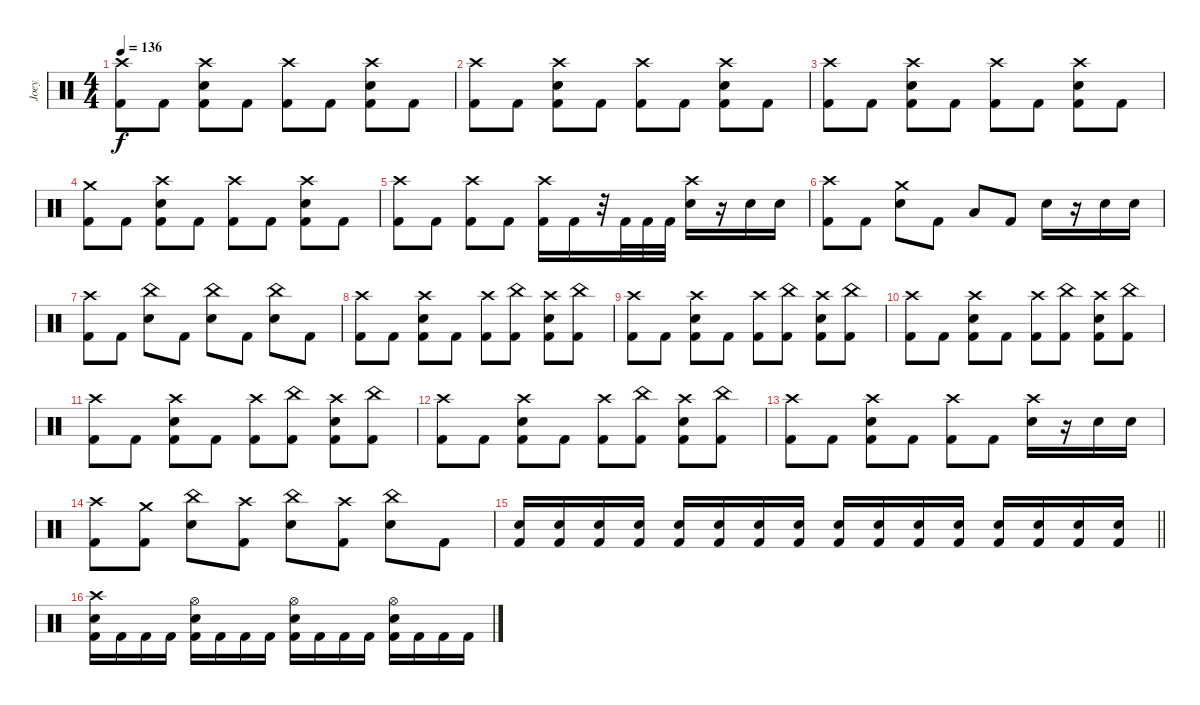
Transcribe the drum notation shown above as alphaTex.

\track ("Joey" "Joey") {instrument percussion}
\staff {score}
\articulation defaults
\ts (4 4)
\tempo 136
\clef neutral
\ks c
("Crash high (hit)" "Kick (hit) 2").8{dy f} "Kick (hit) 2".8 ("Crash high (hit)" "Snare (hit) 2" "Kick (hit) 2").8 "Kick (hit) 2".8 ("Crash high (hit)" "Kick (hit) 2").8 "Kick (hit) 2".8 ("Crash high (hit)" "Snare (hit) 2" "Kick (hit) 2").8 "Kick (hit) 2".8 |
("Crash high (hit)" "Kick (hit) 2").8 "Kick (hit) 2".8 ("Crash high (hit)" "Snare (hit) 2" "Kick (hit) 2").8 "Kick (hit) 2".8 ("Crash high (hit)" "Kick (hit) 2").8 "Kick (hit) 2".8 ("Crash high (hit)" "Snare (hit) 2" "Kick (hit) 2").8 "Kick (hit) 2".8 |
("Crash high (hit)" "Kick (hit) 2").8 "Kick (hit) 2".8 ("Crash high (hit)" "Snare (hit) 2" "Kick (hit) 2").8 "Kick (hit) 2".8 ("Crash high (hit)" "Kick (hit) 2").8 "Kick (hit) 2".8 ("Crash high (hit)" "Snare (hit) 2" "Kick (hit) 2").8 "Kick (hit) 2".8 |
("Crash medium (hit)" "Kick (hit) 2").8 "Kick (hit) 2".8 ("Crash high (hit)" "Snare (hit) 2" "Kick (hit) 2").8 "Kick (hit) 2".8 ("Crash high (hit)" "Kick (hit) 2").8 "Kick (hit) 2".8 ("Crash high (hit)" "Snare (hit) 2" "Kick (hit) 2").8 "Kick (hit) 2".8 |
("Crash high (hit)" "Kick (hit) 2").8 "Kick (hit) 2".8 ("Crash high (hit)" "Kick (hit) 2").8 "Kick (hit) 2".8 ("Crash high (hit)" "Kick (hit) 2").16 "Kick (hit) 2".16 r.32 "Kick (hit) 2".32 "Kick (hit) 2".32 "Kick (hit) 2".32 ("Crash high (hit)" "Snare (hit) 2").16 r.16 "Snare (hit) 2".16 "Snare (hit) 2".16 |
("Crash high (hit)" "Kick (hit) 2").8 "Kick (hit) 2".8 ("Crash medium (hit)" "Snare (hit) 2").8 "Kick (hit) 2".8 "Low Floor Tom (hit)".8 "Kick (hit) 2".8 "Snare (hit) 2".16 r.16 "Snare (hit) 2".16 "Snare (hit) 2".16 |
("Crash high (hit)" "Kick (hit) 2").8 "Kick (hit) 2".8 ("China (hit)" "Snare (hit) 2").8 "Kick (hit) 2".8 ("China (hit)" "Snare (hit) 2").8 "Kick (hit) 2".8 ("China (hit)" "Snare (hit) 2").8 "Kick (hit) 2".8 |
("Crash high (hit)" "Kick (hit) 2").8 "Kick (hit) 2".8 ("Crash high (hit)" "Snare (hit) 2" "Kick (hit) 2").8 "Kick (hit) 2".8 ("Crash high (hit)" "Kick (hit) 2").8 ("China (hit)" "Kick (hit) 2").8 ("Crash high (hit)" "Snare (hit) 2" "Kick (hit) 2").8 ("China (hit)" "Kick (hit) 2").8 |
("Crash high (hit)" "Kick (hit) 2").8 "Kick (hit) 2".8 ("Crash high (hit)" "Snare (hit) 2" "Kick (hit) 2").8 "Kick (hit) 2".8 ("Crash high (hit)" "Kick (hit) 2").8 ("China (hit)" "Kick (hit) 2").8 ("Crash high (hit)" "Snare (hit) 2" "Kick (hit) 2").8 ("China (hit)" "Kick (hit) 2").8 |
("Crash high (hit)" "Kick (hit) 2").8 "Kick (hit) 2".8 ("Crash high (hit)" "Snare (hit) 2" "Kick (hit) 2").8 "Kick (hit) 2".8 ("Crash high (hit)" "Kick (hit) 2").8 ("China (hit)" "Kick (hit) 2").8 ("Crash high (hit)" "Snare (hit) 2" "Kick (hit) 2").8 ("China (hit)" "Kick (hit) 2").8 |
("Crash high (hit)" "Kick (hit) 2").8 "Kick (hit) 2".8 ("Crash high (hit)" "Snare (hit) 2" "Kick (hit) 2").8 "Kick (hit) 2".8 ("Crash high (hit)" "Kick (hit) 2").8 ("China (hit)" "Kick (hit) 2").8 ("Crash high (hit)" "Snare (hit) 2" "Kick (hit) 2").8 ("China (hit)" "Kick (hit) 2").8 |
("Crash high (hit)" "Kick (hit) 2").8 "Kick (hit) 2".8 ("Crash high (hit)" "Snare (hit) 2" "Kick (hit) 2").8 "Kick (hit) 2".8 ("Crash high (hit)" "Kick (hit) 2").8 ("China (hit)" "Kick (hit) 2").8 ("Crash high (hit)" "Snare (hit) 2" "Kick (hit) 2").8 ("China (hit)" "Kick (hit) 2").8 |
("Crash high (hit)" "Kick (hit) 2").8 "Kick (hit) 2".8 ("Crash high (hit)" "Snare (hit) 2" "Kick (hit) 2").8 "Kick (hit) 2".8 ("Crash high (hit)" "Kick (hit) 2").8 "Kick (hit) 2".8 ("Crash high (hit)" "Snare (hit) 2").16 r.16 "Snare (hit) 2".16 "Snare (hit) 2".16 |
("Crash high (hit)" "Kick (hit) 2").8 ("Crash medium (hit)" "Kick (hit) 2").8 ("China (hit)" "Snare (hit) 2").8 ("Crash high (hit)" "Kick (hit) 2").8 ("China (hit)" "Snare (hit) 2").8 ("Crash high (hit)" "Kick (hit) 2").8 ("China (hit)" "Snare (hit) 2").8 "Kick (hit) 2".8 |
\barLineRight lightlight
("Snare (hit) 2" "Kick (hit) 2").16 ("Snare (hit) 2" "Kick (hit) 2").16 ("Snare (hit) 2" "Kick (hit) 2").16 ("Snare (hit) 2" "Kick (hit) 2").16 ("Snare (hit) 2" "Kick (hit) 2").16 ("Snare (hit) 2" "Kick (hit) 2").16 ("Snare (hit) 2" "Kick (hit) 2").16 ("Snare (hit) 2" "Kick (hit) 2").16 ("Snare (hit) 2" "Kick (hit) 2").16 ("Snare (hit) 2" "Kick (hit) 2").16 ("Snare (hit) 2" "Kick (hit) 2").16 ("Snare (hit) 2" "Kick (hit) 2").16 ("Snare (hit) 2" "Kick (hit) 2").16 ("Snare (hit) 2" "Kick (hit) 2").16 ("Snare (hit) 2" "Kick (hit) 2").16 ("Snare (hit) 2" "Kick (hit) 2").16 |
("Crash high (hit)" "Snare (hit) 2" "Kick (hit) 2").16 "Kick (hit) 2".16 "Kick (hit) 2".16 "Kick (hit) 2".16 ("Hi-Hat (open)" "Snare (hit) 2" "Kick (hit) 2").16 "Kick (hit) 2".16 "Kick (hit) 2".16 "Kick (hit) 2".16 ("Hi-Hat (open)" "Snare (hit) 2" "Kick (hit) 2").16 "Kick (hit) 2".16 "Kick (hit) 2".16 "Kick (hit) 2".16 ("Hi-Hat (open)" "Snare (hit) 2" "Kick (hit) 2").16 "Kick (hit) 2".16 "Kick (hit) 2".16 "Kick (hit) 2".16
